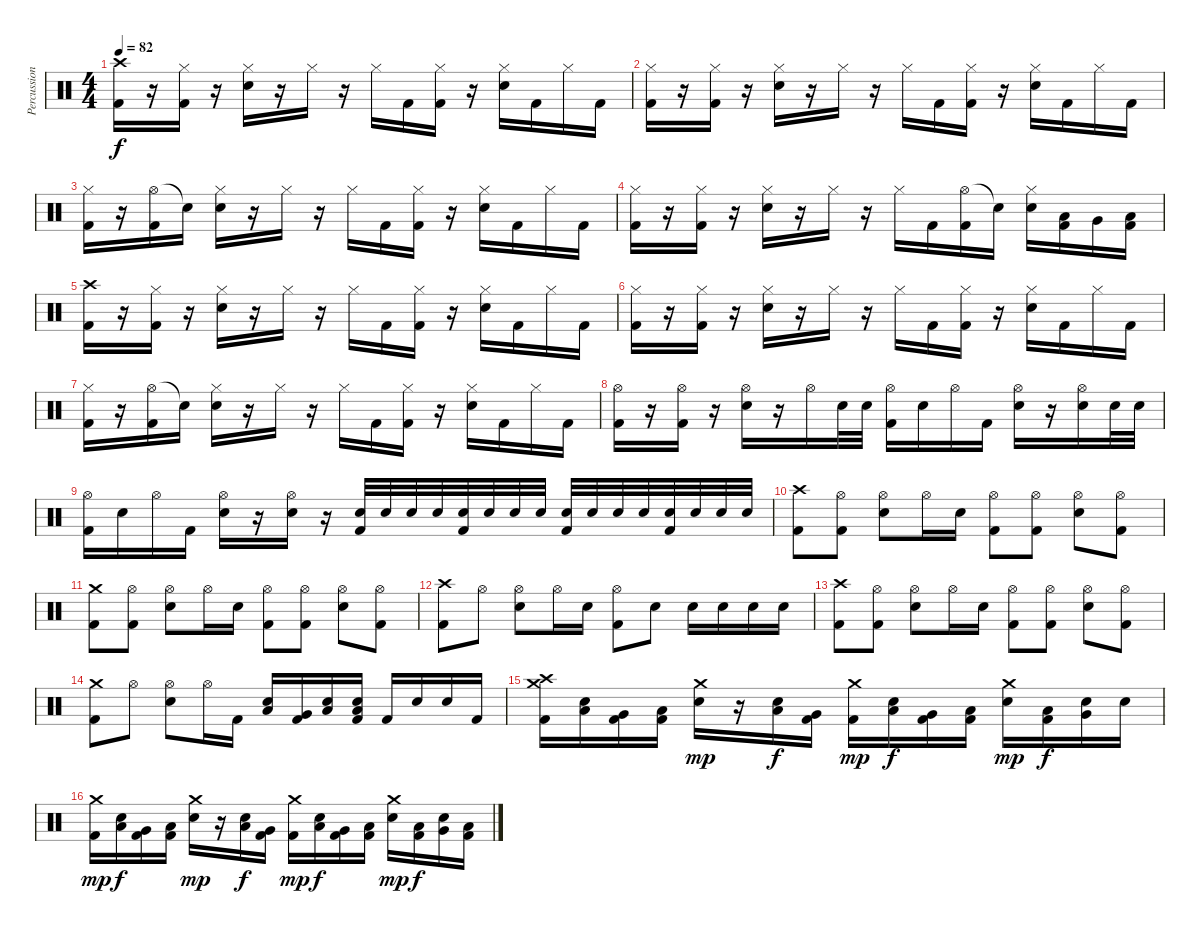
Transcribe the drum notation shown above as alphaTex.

\track ("Percussion" "Percussion") {instrument percussion}
\staff {score}
\articulation defaults
\ts (4 4)
\tempo 82
\clef neutral
\ks c
("Crash high (hit)" "Kick (hit) 2").16{dy f} r.16 ("Hi-Hat (closed)" "Kick (hit) 2").16 r.16 ("Hi-Hat (closed)" "Snare (hit) 2").16 r.16 "Hi-Hat (closed)".16 r.16 "Hi-Hat (closed)".16 "Kick (hit) 2".16 ("Hi-Hat (closed)" "Kick (hit) 2").16 r.16 ("Hi-Hat (closed)" "Snare (hit) 2").16 "Kick (hit) 2".16 "Hi-Hat (closed)".16 "Kick (hit) 2".16 |
("Hi-Hat (closed)" "Kick (hit) 2").16 r.16 ("Hi-Hat (closed)" "Kick (hit) 2").16 r.16 ("Hi-Hat (closed)" "Snare (hit) 2").16 r.16 "Hi-Hat (closed)".16 r.16 "Hi-Hat (closed)".16 "Kick (hit) 2".16 ("Hi-Hat (closed)" "Kick (hit) 2").16 r.16 ("Hi-Hat (closed)" "Snare (hit) 2").16 "Kick (hit) 2".16 "Hi-Hat (closed)".16 "Kick (hit) 2".16 |
("Hi-Hat (closed)" "Kick (hit) 2").16 r.16 ("Hi-Hat (open)" "Kick (hit) 2").16 "Snare (hit)"{t}.16 ("Hi-Hat (closed)" "Snare (hit) 2").16 r.16 "Hi-Hat (closed)".16 r.16 "Hi-Hat (closed)".16 "Kick (hit) 2".16 ("Hi-Hat (closed)" "Kick (hit) 2").16 r.16 ("Hi-Hat (closed)" "Snare (hit) 2").16 "Kick (hit) 2".16 "Hi-Hat (closed)".16 "Kick (hit) 2".16 |
("Hi-Hat (closed)" "Kick (hit) 2").16 r.16 ("Hi-Hat (closed)" "Kick (hit) 2").16 r.16 ("Hi-Hat (closed)" "Snare (hit) 2").16 r.16 "Hi-Hat (closed)".16 r.16 "Hi-Hat (closed)".16 "Kick (hit) 2".16 ("Hi-Hat (open)" "Kick (hit) 2").16 "Snare (hit)"{t}.16 ("Hi-Hat (closed)" "Snare (hit) 2").16 ("Low Tom (hit)" "Kick (hit) 2").16 "Very Low Tom (hit)".16 ("Low Floor Tom (hit)" "Kick (hit) 2").16 |
("Crash high (hit)" "Kick (hit) 2").16 r.16 ("Hi-Hat (closed)" "Kick (hit) 2").16 r.16 ("Hi-Hat (closed)" "Snare (hit) 2").16 r.16 "Hi-Hat (closed)".16 r.16 "Hi-Hat (closed)".16 "Kick (hit) 2".16 ("Hi-Hat (closed)" "Kick (hit) 2").16 r.16 ("Hi-Hat (closed)" "Snare (hit) 2").16 "Kick (hit) 2".16 "Hi-Hat (closed)".16 "Kick (hit) 2".16 |
("Hi-Hat (closed)" "Kick (hit) 2").16 r.16 ("Hi-Hat (closed)" "Kick (hit) 2").16 r.16 ("Hi-Hat (closed)" "Snare (hit) 2").16 r.16 "Hi-Hat (closed)".16 r.16 "Hi-Hat (closed)".16 "Kick (hit) 2".16 ("Hi-Hat (closed)" "Kick (hit) 2").16 r.16 ("Hi-Hat (closed)" "Snare (hit) 2").16 "Kick (hit) 2".16 "Hi-Hat (closed)".16 "Kick (hit) 2".16 |
("Hi-Hat (closed)" "Kick (hit) 2").16 r.16 ("Hi-Hat (open)" "Kick (hit) 2").16 "Snare (hit)"{t}.16 ("Hi-Hat (closed)" "Snare (hit) 2").16 r.16 "Hi-Hat (closed)".16 r.16 "Hi-Hat (closed)".16 "Kick (hit) 2".16 ("Hi-Hat (closed)" "Kick (hit) 2").16 r.16 ("Hi-Hat (closed)" "Snare (hit) 2").16 "Kick (hit) 2".16 "Hi-Hat (closed)".16 "Kick (hit) 2".16 |
("Hi-Hat (open)" "Kick (hit) 2").16 r.16 ("Hi-Hat (open)" "Kick (hit) 2").16 r.16 ("Hi-Hat (open)" "Snare (hit) 2").16 r.16 "Hi-Hat (open)".16 "Snare (hit) 2".32 "Snare (hit) 2".32 ("Hi-Hat (open)" "Kick (hit) 2").16 "Snare (hit) 2".16 "Hi-Hat (open)".16 "Kick (hit) 2".16 ("Hi-Hat (open)" "Snare (hit) 2").16 r.16 ("Hi-Hat (open)" "Snare (hit) 2").16 "Snare (hit) 2".32 "Snare (hit) 2".32 |
("Hi-Hat (open)" "Kick (hit) 2").16 "Snare (hit) 2".16 "Hi-Hat (open)".16 "Kick (hit) 2".16 ("Hi-Hat (open)" "Snare (hit) 2").16 r.16 ("Hi-Hat (open)" "Snare (hit) 2").16 r.16 ("Snare (hit) 2" "Kick (hit) 2").32 "Snare (hit) 2".32 "Snare (hit) 2".32 "Snare (hit) 2".32 ("Snare (hit) 2" "Kick (hit) 2").32 "Snare (hit) 2".32 "Snare (hit) 2".32 "Snare (hit) 2".32 ("Snare (hit) 2" "Kick (hit) 2").32 "Snare (hit) 2".32 "Snare (hit) 2".32 "Snare (hit) 2".32 ("Snare (hit) 2" "Kick (hit) 2").32 "Snare (hit) 2".32 "Snare (hit) 2".32 "Snare (hit) 2".32 |
("Crash high (hit)" "Kick (hit) 2").8 ("Hi-Hat (open)" "Kick (hit) 2").8 ("Hi-Hat (open)" "Snare (hit) 2").8 "Hi-Hat (open)".16 "Snare (hit) 2".16 ("Hi-Hat (open)" "Kick (hit) 2").8 ("Hi-Hat (open)" "Kick (hit) 2").8 ("Hi-Hat (open)" "Snare (hit) 2").8 ("Hi-Hat (open)" "Kick (hit) 2").8 |
("Crash medium (hit)" "Kick (hit) 2").8 ("Hi-Hat (open)" "Kick (hit) 2").8 ("Hi-Hat (open)" "Snare (hit) 2").8 "Hi-Hat (open)".16 "Snare (hit) 2".16 ("Hi-Hat (open)" "Kick (hit) 2").8 ("Hi-Hat (open)" "Kick (hit) 2").8 ("Hi-Hat (open)" "Snare (hit) 2").8 ("Hi-Hat (open)" "Kick (hit) 2").8 |
("Crash high (hit)" "Kick (hit) 2").8 "Hi-Hat (open)".8 ("Hi-Hat (open)" "Snare (hit) 2").8 "Hi-Hat (open)".16 "Snare (hit) 2".16 ("Hi-Hat (open)" "Kick (hit) 2").8 "Snare (hit) 2".8 "Snare (hit) 2".16 "Snare (hit) 2".16 "Snare (hit) 2".16 "Snare (hit) 2".16 |
("Crash high (hit)" "Kick (hit) 2").8 ("Hi-Hat (open)" "Kick (hit) 2").8 ("Hi-Hat (open)" "Snare (hit) 2").8 "Hi-Hat (open)".16 "Snare (hit) 2".16 ("Hi-Hat (open)" "Kick (hit) 2").8 ("Hi-Hat (open)" "Kick (hit) 2").8 ("Hi-Hat (open)" "Snare (hit) 2").8 ("Hi-Hat (open)" "Kick (hit) 2").8 |
("Crash medium (hit)" "Kick (hit) 2").8 "Hi-Hat (open)".8 ("Hi-Hat (open)" "Snare (hit) 2").8 "Hi-Hat (open)".16 "Kick (hit) 2".16 ("Low Tom (hit)" "Snare (hit) 2").16 ("Very Low Tom (hit)" "Kick (hit) 2").16 ("Low Floor Tom (hit)" "Snare (hit) 2").16 ("Low Floor Tom (hit)" "Snare (hit) 2" "Kick (hit) 2").16 "Kick (hit) 2".16 "Snare (hit) 2".16 "Snare (hit) 2".16 "Kick (hit) 2".16 |
("Crash high (hit)" "Crash medium (hit)" "Kick (hit) 2").16 ("Low Tom (hit)" "Snare (hit) 2").16 ("Very Low Tom (hit)" "Kick (hit) 2").16 ("Low Floor Tom (hit)" "Kick (hit) 2").16 ("Crash medium (hit)" "Snare (hit) 2").16{dy mp} r.16 ("Low Tom (hit)" "Snare (hit) 2").16{dy f} ("Very Low Tom (hit)" "Kick (hit) 2").16 ("Crash medium (hit)" "Kick (hit) 2").16{dy mp} ("Low Tom (hit)" "Snare (hit) 2").16{dy f} ("Very Low Tom (hit)" "Kick (hit) 2").16 ("Low Floor Tom (hit)" "Kick (hit) 2").16 ("Crash medium (hit)" "Snare (hit) 2").16{dy mp} ("Low Tom (hit)" "Kick (hit) 2").16{dy f} ("Very Low Tom (hit)" "Snare (hit) 2").16 "Snare (hit) 2".16 |
("Crash medium (hit)" "Kick (hit) 2").16{dy mp} ("Low Tom (hit)" "Snare (hit) 2").16{dy f} ("Very Low Tom (hit)" "Kick (hit) 2").16 ("Low Floor Tom (hit)" "Kick (hit) 2").16 ("Crash medium (hit)" "Snare (hit) 2").16{dy mp} r.16 ("Low Tom (hit)" "Snare (hit) 2").16{dy f} ("Very Low Tom (hit)" "Kick (hit) 2").16 ("Crash medium (hit)" "Kick (hit) 2").16{dy mp} ("Low Tom (hit)" "Snare (hit) 2").16{dy f} ("Very Low Tom (hit)" "Kick (hit) 2").16 ("Low Floor Tom (hit)" "Kick (hit) 2").16 ("Crash medium (hit)" "Snare (hit) 2").16{dy mp} ("Low Tom (hit)" "Kick (hit) 2").16{dy f} ("Very Low Tom (hit)" "Snare (hit) 2").16 ("Low Floor Tom (hit)" "Kick (hit) 2").16
